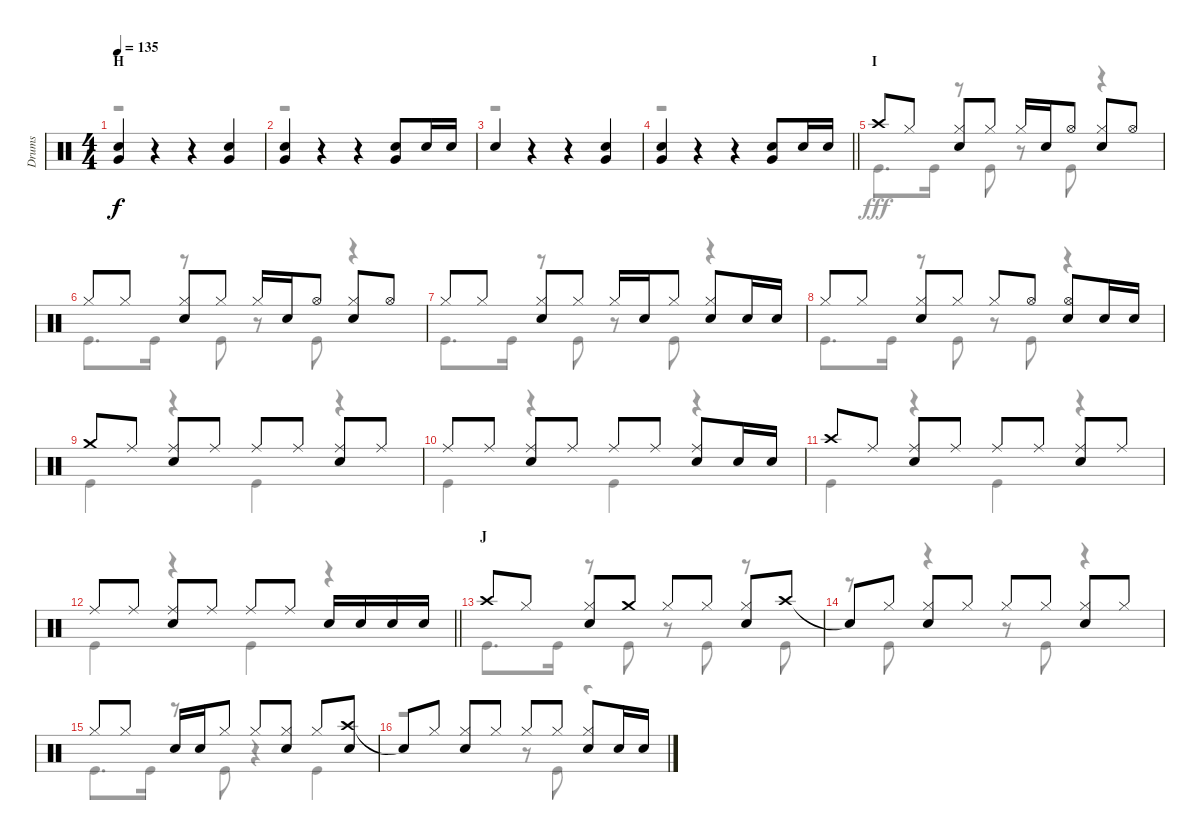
\track ("Drums" "Drums") {instrument percussion}
\staff {score}
\articulation defaults
\voice
\ts (4 4)
\section ("" "H")
\tempo 135
\clef neutral
\ks c
("Snare (hit) 2" "Very Low Tom (hit)").4{dy f} r.4 r.4 ("Snare (hit) 2" "Very Low Tom (hit)").4 |
("Snare (hit) 2" "Very Low Tom (hit)").4 r.4 r.4 ("Snare (hit) 2" "Very Low Tom (hit)").8 "Snare (hit) 2".16 "Snare (hit) 2".16 |
"Snare (hit) 2".4 r.4 r.4 ("Snare (hit) 2" "Very Low Tom (hit)").4 |
\barLineRight lightlight
("Snare (hit) 2" "Very Low Tom (hit)").4 r.4 r.4 ("Snare (hit) 2" "Very Low Tom (hit)").8 "Snare (hit) 2".16 "Snare (hit) 2".16 |
\section ("" "I")
"Crash high (hit)".8 "Hi-Hat (closed)".8 ("Hi-Hat (closed)" "Snare (hit) 2").8 "Hi-Hat (closed)".8 "Hi-Hat (closed)".16 "Snare (hit) 2".16 "Hi-Hat (open)".8 ("Hi-Hat (closed)" "Snare (hit) 2").8 "Hi-Hat (open)".8 |
"Hi-Hat (closed)".8 "Hi-Hat (closed)".8 ("Hi-Hat (closed)" "Snare (hit) 2").8 "Hi-Hat (closed)".8 "Hi-Hat (closed)".16 "Snare (hit) 2".16 "Hi-Hat (open)".8 ("Hi-Hat (closed)" "Snare (hit) 2").8 "Hi-Hat (open)".8 |
"Hi-Hat (closed)".8 "Hi-Hat (closed)".8 ("Hi-Hat (closed)" "Snare (hit) 2").8 "Hi-Hat (closed)".8 "Hi-Hat (closed)".16 "Snare (hit) 2".16 "Hi-Hat (closed)".8 ("Hi-Hat (closed)" "Snare (hit) 2").8 "Snare (hit) 2".16 "Snare (hit) 2".16 |
"Hi-Hat (closed)".8 "Hi-Hat (closed)".8 ("Hi-Hat (closed)" "Snare (hit) 2").8 "Hi-Hat (closed)".8 "Hi-Hat (closed)".8 "Hi-Hat (open)".8 ("Hi-Hat (open)" "Snare (hit) 2").8 "Snare (hit) 2".16 "Snare (hit) 2".16 |
"Crash medium (hit)".8 "Ride (middle)".8 ("Ride (middle)" "Snare (hit) 2").8 "Ride (middle)".8 "Ride (middle)".8 "Ride (middle)".8 ("Ride (middle)" "Snare (hit) 2").8 "Ride (middle)".8 |
"Ride (middle)".8 "Ride (middle)".8 ("Ride (middle)" "Snare (hit) 2").8 "Ride (middle)".8 "Ride (middle)".8 "Ride (middle)".8 ("Ride (middle)" "Snare (hit) 2").8 "Snare (hit) 2".16 "Snare (hit) 2".16 |
"Crash high (hit)".8 "Ride (middle)".8 ("Ride (middle)" "Snare (hit) 2").8 "Ride (middle)".8 "Ride (middle)".8 "Ride (middle)".8 ("Ride (middle)" "Snare (hit) 2").8 "Ride (middle)".8 |
\barLineRight lightlight "Ride (middle)".8 "Ride (middle)".8
("Ride (middle)" "Snare (hit) 2").8 "Ride (middle)".8 "Ride (middle)".8 "Ride (middle)".8 "Snare (hit) 2".16 "Snare (hit) 2".16 "Snare (hit) 2".16 "Snare (hit) 2".16 |
\section ("" "J")
"Crash high (hit)".8 "Hi-Hat (closed)".8 ("Hi-Hat (closed)" "Snare (hit) 2").8 "Crash medium (hit)".8 "Hi-Hat (closed)".8 "Hi-Hat (closed)".8 ("Hi-Hat (closed)" "Snare (hit) 2").8 "Crash high (hit)".8 |
"Snare (hit)"{t}.8 "Hi-Hat (closed)".8 ("Hi-Hat (closed)" "Snare (hit) 2").8 "Hi-Hat (closed)".8 "Hi-Hat (closed)".8 "Hi-Hat (closed)".8 ("Hi-Hat (closed)" "Snare (hit) 2").8 "Hi-Hat (closed)".8 |
"Hi-Hat (closed)".8 "Hi-Hat (closed)".8 "Snare (hit) 2".16 "Snare (hit) 2".16 "Hi-Hat (closed)".8 "Hi-Hat (closed)".8 ("Hi-Hat (closed)" "Snare (hit) 2").8 "Hi-Hat (closed)".8 ("Crash high (hit)" "Snare (hit) 2").8 |
"Snare (hit)"{t}.8 "Hi-Hat (closed)".8 ("Hi-Hat (closed)" "Snare (hit) 2").8 "Hi-Hat (closed)".8 "Hi-Hat (closed)".8 "Hi-Hat (closed)".8 ("Hi-Hat (closed)" "Snare (hit) 2").8 "Snare (hit) 2".16 "Snare (hit) 2".16
\voice
\clef neutral
\ottava regular
\simile none
\ks c
r.1{dy fff} |
r.1 |
r.1 |
\barLineRight lightlight
r.1 |
"Kick (hit)".8{d} "Kick (hit)".16 r.8 "Kick (hit)".8 r.8 "Kick (hit)".8 r.4 |
"Kick (hit)".8{d} "Kick (hit)".16 r.8 "Kick (hit)".8 r.8 "Kick (hit)".8 r.4 |
"Kick (hit)".8{d} "Kick (hit)".16 r.8 "Kick (hit)".8 r.8 "Kick (hit)".8 r.4 |
"Kick (hit)".8{d} "Kick (hit)".16 r.8 "Kick (hit)".8 r.8 "Kick (hit)".8 r.4 |
"Kick (hit)".4 r.4 "Kick (hit)".4 r.4 |
"Kick (hit)".4 r.4 "Kick (hit)".4 r.4 |
"Kick (hit)".4 r.4 "Kick (hit)".4 r.4 |
\barLineRight lightlight "Kick (hit)".4
r.4 "Kick (hit)".4 r.4 |
"Kick (hit)".8{d} "Kick (hit)".16 r.8 "Kick (hit)".8 r.8 "Kick (hit)".8 r.8 "Kick (hit)".8 |
r.8 "Kick (hit)".8 r.4 r.8 "Kick (hit)".8 r.4 |
"Kick (hit)".8{d} "Kick (hit)".16 r.8 "Kick (hit)".8 r.4 "Kick (hit)".4 |
r.2 r.8 "Kick (hit)".8 r.4
